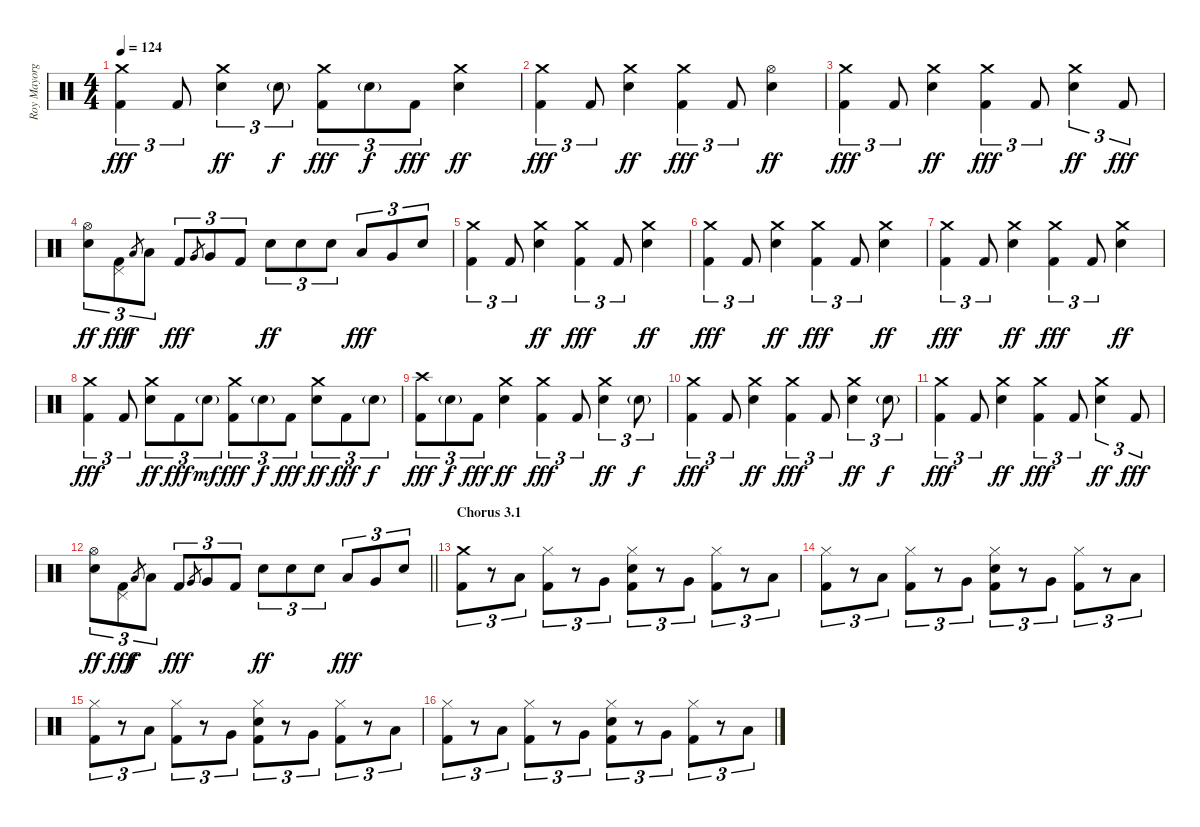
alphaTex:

\track ("Roy Mayorga" "Roy Mayorg") {instrument percussion}
\staff {score}
\articulation defaults
\ts (4 4)
\tempo 124
\clef neutral
\ks c
("Crash medium (hit)" "Kick (hit) 2").4{tu (3 2) dy fff} "Kick (hit) 2".8{tu (3 2)} ("Crash medium (hit)" "Electric Snare (hit)").4{tu (3 2) dy ff} "Electric Snare (hit)"{g}.8{tu (3 2) dy f} ("Crash medium (hit)" "Kick (hit) 2").8{tu (3 2) dy fff} "Electric Snare (hit)"{g}.8{tu (3 2) dy f} "Kick (hit) 2".8{tu (3 2) dy fff} ("Crash medium (hit)" "Electric Snare (hit)").4{dy ff} |
("Crash medium (hit)" "Kick (hit) 2").4{tu (3 2) dy fff} "Kick (hit) 2".8{tu (3 2)} ("Crash medium (hit)" "Electric Snare (hit)").4{dy ff} ("Crash medium (hit)" "Kick (hit) 2").4{tu (3 2) dy fff} "Kick (hit) 2".8{tu (3 2)} ("Hi-Hat (open)" "Electric Snare (hit)").4{dy ff} |
("Crash medium (hit)" "Kick (hit) 2").4{tu (3 2) dy fff} "Kick (hit) 2".8{tu (3 2)} ("Crash medium (hit)" "Electric Snare (hit)").4{dy ff} ("Crash medium (hit)" "Kick (hit) 2").4{tu (3 2) dy fff} "Kick (hit) 2".8{tu (3 2)} ("Crash medium (hit)" "Electric Snare (hit)").4{tu (3 2) dy ff} "Kick (hit) 2".8{tu (3 2) dy fff} |
("Hi-Hat (open)" "Electric Snare (hit)").8{tu (3 2) dy ff} ("Pedal Hi-Hat (hit)" "Kick (hit) 2").8{tu (3 2) dy fff} "Low Tom (hit)".8{gr dy f} "Low Tom (hit)".8{tu (3 2)} "Kick (hit) 2".8{tu (3 2) dy fff} "Very Low Tom (hit)".8{gr} "Very Low Tom (hit)".8{tu (3 2)} "Kick (hit) 2".8{tu (3 2)} "Electric Snare (hit)".8{tu (3 2) dy ff} "Electric Snare (hit)".8{tu (3 2)} "Electric Snare (hit)".8{tu (3 2)} "Low Tom (hit)".8{tu (3 2) dy fff} "Very Low Tom (hit)".8{tu (3 2)} "Electric Snare (hit)".8{tu (3 2)} |
("Crash medium (hit)" "Kick (hit) 2").4{tu (3 2)} "Kick (hit) 2".8{tu (3 2)} ("Crash medium (hit)" "Electric Snare (hit)").4{dy ff} ("Crash medium (hit)" "Kick (hit) 2").4{tu (3 2) dy fff} "Kick (hit) 2".8{tu (3 2)} ("Crash medium (hit)" "Electric Snare (hit)").4{dy ff} |
("Crash medium (hit)" "Kick (hit) 2").4{tu (3 2) dy fff} "Kick (hit) 2".8{tu (3 2)} ("Crash medium (hit)" "Electric Snare (hit)").4{dy ff} ("Crash medium (hit)" "Kick (hit) 2").4{tu (3 2) dy fff} "Kick (hit) 2".8{tu (3 2)} ("Crash medium (hit)" "Electric Snare (hit)").4{dy ff} |
("Crash medium (hit)" "Kick (hit) 2").4{tu (3 2) dy fff} "Kick (hit) 2".8{tu (3 2)} ("Crash medium (hit)" "Electric Snare (hit)").4{dy ff} ("Crash medium (hit)" "Kick (hit) 2").4{tu (3 2) dy fff} "Kick (hit) 2".8{tu (3 2)} ("Crash medium (hit)" "Electric Snare (hit)").4{dy ff} |
("Crash medium (hit)" "Kick (hit) 2").4{tu (3 2) dy fff} "Kick (hit) 2".8{tu (3 2)} ("Crash medium (hit)" "Electric Snare (hit)").8{tu (3 2) dy ff} "Kick (hit) 2".8{tu (3 2) dy fff} "Electric Snare (hit)"{g}.8{tu (3 2) dy mf} ("Crash medium (hit)" "Kick (hit) 2").8{tu (3 2) dy fff} "Electric Snare (hit)"{g}.8{tu (3 2) dy f} "Kick (hit) 2".8{tu (3 2) dy fff} ("Crash medium (hit)" "Electric Snare (hit)").8{tu (3 2) dy ff} "Kick (hit) 2".8{tu (3 2) dy fff} "Electric Snare (hit)"{g}.8{tu (3 2) dy f} |
("Crash high (hit)" "Kick (hit) 2").8{tu (3 2) dy fff} "Electric Snare (hit)"{g}.8{tu (3 2) dy f} "Kick (hit) 2".8{tu (3 2) dy fff} ("Crash medium (hit)" "Electric Snare (hit)").4{dy ff} ("Crash medium (hit)" "Kick (hit) 2").4{tu (3 2) dy fff} "Kick (hit) 2".8{tu (3 2)} ("Crash medium (hit)" "Electric Snare (hit)").4{tu (3 2) dy ff} "Electric Snare (hit)"{g}.8{tu (3 2) dy f} |
("Crash medium (hit)" "Kick (hit) 2").4{tu (3 2) dy fff} "Kick (hit) 2".8{tu (3 2)} ("Crash medium (hit)" "Electric Snare (hit)").4{dy ff} ("Crash medium (hit)" "Kick (hit) 2").4{tu (3 2) dy fff} "Kick (hit) 2".8{tu (3 2)} ("Crash medium (hit)" "Electric Snare (hit)").4{tu (3 2) dy ff} "Electric Snare (hit)"{g}.8{tu (3 2) dy f} |
("Crash medium (hit)" "Kick (hit) 2").4{tu (3 2) dy fff} "Kick (hit) 2".8{tu (3 2)} ("Crash medium (hit)" "Electric Snare (hit)").4{dy ff} ("Crash medium (hit)" "Kick (hit) 2").4{tu (3 2) dy fff} "Kick (hit) 2".8{tu (3 2)} ("Crash medium (hit)" "Electric Snare (hit)").4{tu (3 2) dy ff} "Kick (hit) 2".8{tu (3 2) dy fff} |
\barLineRight lightlight
("Hi-Hat (open)" "Electric Snare (hit)").8{tu (3 2) dy ff} ("Pedal Hi-Hat (hit)" "Kick (hit) 2").8{tu (3 2) dy fff} "Low Tom (hit)".8{gr dy f} "Low Tom (hit)".8{tu (3 2)} "Kick (hit) 2".8{tu (3 2) dy fff} "Very Low Tom (hit)".8{gr} "Very Low Tom (hit)".8{tu (3 2)} "Kick (hit) 2".8{tu (3 2)} "Electric Snare (hit)".8{tu (3 2) dy ff} "Electric Snare (hit)".8{tu (3 2)} "Electric Snare (hit)".8{tu (3 2)} "Low Tom (hit)".8{tu (3 2) dy fff} "Very Low Tom (hit)".8{tu (3 2)} "Electric Snare (hit)".8{tu (3 2)} |
\section ("" "Chorus 3.1")
("Crash medium (hit)" "Kick (hit) 2").8{tu (3 2)} r.8{tu (3 2)} "Low Tom (hit)".8{tu (3 2)} ("Hi-Hat (closed)" "Kick (hit) 2").8{tu (3 2)} r.8{tu (3 2)} "Very Low Tom (hit)".8{tu (3 2)} ("Hi-Hat (closed)" "Electric Snare (hit)" "Kick (hit) 2").8{tu (3 2)} r.8{tu (3 2)} "Very Low Tom (hit)".8{tu (3 2)} ("Hi-Hat (closed)" "Kick (hit) 2").8{tu (3 2)} r.8{tu (3 2)} "Low Floor Tom (hit)".8{tu (3 2)} |
("Hi-Hat (closed)" "Kick (hit) 2").8{tu (3 2)} r.8{tu (3 2)} "Low Tom (hit)".8{tu (3 2)} ("Hi-Hat (closed)" "Kick (hit) 2").8{tu (3 2)} r.8{tu (3 2)} "Very Low Tom (hit)".8{tu (3 2)} ("Hi-Hat (closed)" "Electric Snare (hit)" "Kick (hit) 2").8{tu (3 2)} r.8{tu (3 2)} "Very Low Tom (hit)".8{tu (3 2)} ("Hi-Hat (closed)" "Kick (hit) 2").8{tu (3 2)} r.8{tu (3 2)} "Low Floor Tom (hit)".8{tu (3 2)} |
("Hi-Hat (closed)" "Kick (hit) 2").8{tu (3 2)} r.8{tu (3 2)} "Low Tom (hit)".8{tu (3 2)} ("Hi-Hat (closed)" "Kick (hit) 2").8{tu (3 2)} r.8{tu (3 2)} "Very Low Tom (hit)".8{tu (3 2)} ("Hi-Hat (closed)" "Electric Snare (hit)" "Kick (hit) 2").8{tu (3 2)} r.8{tu (3 2)} "Very Low Tom (hit)".8{tu (3 2)} ("Hi-Hat (closed)" "Kick (hit) 2").8{tu (3 2)} r.8{tu (3 2)} "Low Floor Tom (hit)".8{tu (3 2)} |
("Hi-Hat (closed)" "Kick (hit) 2").8{tu (3 2)} r.8{tu (3 2)} "Low Tom (hit)".8{tu (3 2)} ("Hi-Hat (closed)" "Kick (hit) 2").8{tu (3 2)} r.8{tu (3 2)} "Very Low Tom (hit)".8{tu (3 2)} ("Hi-Hat (closed)" "Electric Snare (hit)" "Kick (hit) 2").8{tu (3 2)} r.8{tu (3 2)} "Very Low Tom (hit)".8{tu (3 2)} ("Hi-Hat (closed)" "Kick (hit) 2").8{tu (3 2)} r.8{tu (3 2)} "Low Floor Tom (hit)".8{tu (3 2)}
